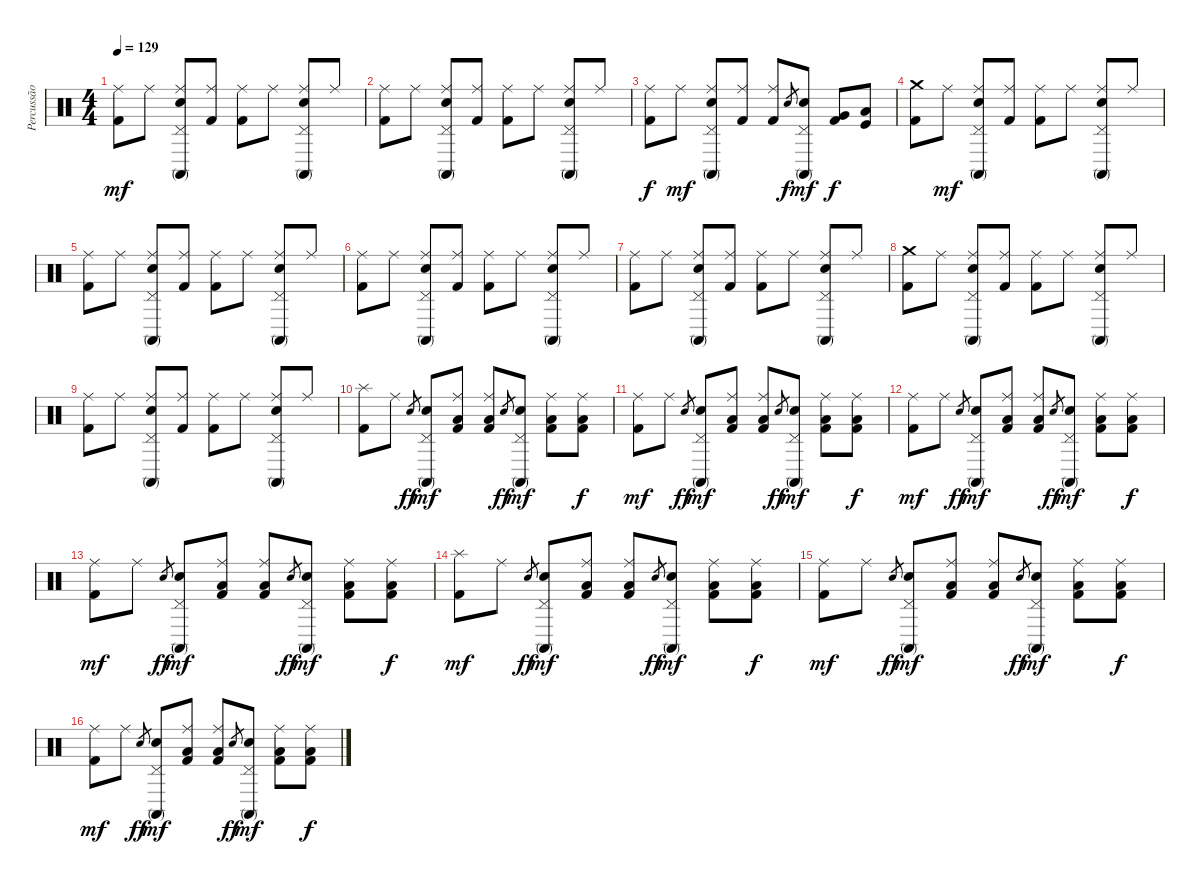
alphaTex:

\track ("Percussão" "Percussão") {instrument percussion}
\staff {score}
\articulation defaults
\ts (4 4)
\tempo 129
\clef neutral
\ks c
("Ride (middle)" "Kick (hit) 2").8{dy mf} "Ride (middle)".8 ("Ride (middle)" "Snare (hit) 2" "Conga high (mute)" "Pedal Hi-Hat (hit)").8 ("Ride (middle)" "Kick (hit) 2").8 ("Ride (middle)" "Kick (hit) 2").8 "Ride (middle)".8 ("Ride (middle)" "Snare (hit) 2" "Conga high (mute)" "Pedal Hi-Hat (hit)").8 "Ride (middle)".8 |
("Ride (middle)" "Kick (hit) 2").8 "Ride (middle)".8 ("Ride (middle)" "Snare (hit) 2" "Conga high (mute)" "Pedal Hi-Hat (hit)").8 ("Ride (middle)" "Kick (hit) 2").8 ("Ride (middle)" "Kick (hit) 2").8 "Ride (middle)".8 ("Ride (middle)" "Snare (hit) 2" "Conga high (mute)" "Pedal Hi-Hat (hit)").8 "Ride (middle)".8 |
("Ride (middle)" "Kick (hit) 2").8{dy f} "Ride (middle)".8{dy mf} ("Ride (middle)" "Snare (hit) 2" "Conga high (mute)" "Pedal Hi-Hat (hit)").8 ("Ride (middle)" "Kick (hit) 2").8 ("Ride (middle)" "Kick (hit) 2").8 "Snare (hit) 2".8{gr dy f} ("Snare (hit) 2" "Conga high (mute)" "Pedal Hi-Hat (hit)").8{dy mf} ("Very Low Tom (hit)" "Kick (hit) 2").8{dy f} ("Low Floor Tom (hit)" "Kick (hit)").8 |
("Crash medium (hit)" "Kick (hit) 2").8 "Ride (middle)".8{dy mf} ("Ride (middle)" "Snare (hit) 2" "Conga high (mute)" "Pedal Hi-Hat (hit)").8 ("Ride (middle)" "Kick (hit) 2").8 ("Ride (middle)" "Kick (hit) 2").8 "Ride (middle)".8 ("Ride (middle)" "Snare (hit) 2" "Conga high (mute)" "Pedal Hi-Hat (hit)").8 "Ride (middle)".8 |
("Ride (middle)" "Kick (hit) 2").8 "Ride (middle)".8 ("Ride (middle)" "Snare (hit) 2" "Conga high (mute)" "Pedal Hi-Hat (hit)").8 ("Ride (middle)" "Kick (hit) 2").8 ("Ride (middle)" "Kick (hit) 2").8 "Ride (middle)".8 ("Ride (middle)" "Snare (hit) 2" "Conga high (mute)" "Pedal Hi-Hat (hit)").8 "Ride (middle)".8 |
("Ride (middle)" "Kick (hit) 2").8 "Ride (middle)".8 ("Ride (middle)" "Snare (hit) 2" "Conga high (mute)" "Pedal Hi-Hat (hit)").8 ("Ride (middle)" "Kick (hit) 2").8 ("Ride (middle)" "Kick (hit) 2").8 "Ride (middle)".8 ("Ride (middle)" "Snare (hit) 2" "Conga high (mute)" "Pedal Hi-Hat (hit)").8 "Ride (middle)".8 |
("Ride (middle)" "Kick (hit) 2").8 "Ride (middle)".8 ("Ride (middle)" "Snare (hit) 2" "Conga high (mute)" "Pedal Hi-Hat (hit)").8 ("Ride (middle)" "Kick (hit) 2").8 ("Ride (middle)" "Kick (hit) 2").8 "Ride (middle)".8 ("Ride (middle)" "Snare (hit) 2" "Conga high (mute)" "Pedal Hi-Hat (hit)").8 "Ride (middle)".8 |
("Crash medium (hit)" "Kick (hit) 2").8 "Ride (middle)".8 ("Ride (middle)" "Snare (hit) 2" "Conga high (mute)" "Pedal Hi-Hat (hit)").8 ("Ride (middle)" "Kick (hit) 2").8 ("Ride (middle)" "Kick (hit) 2").8 "Ride (middle)".8 ("Ride (middle)" "Snare (hit) 2" "Conga high (mute)" "Pedal Hi-Hat (hit)").8 "Ride (middle)".8 |
("Ride (middle)" "Kick (hit) 2").8 "Ride (middle)".8 ("Ride (middle)" "Snare (hit) 2" "Conga high (mute)" "Pedal Hi-Hat (hit)").8 ("Ride (middle)" "Kick (hit) 2").8 ("Ride (middle)" "Kick (hit) 2").8 "Ride (middle)".8 ("Ride (middle)" "Snare (hit) 2" "Conga high (mute)" "Pedal Hi-Hat (hit)").8 "Ride (middle)".8 |
("Splash (hit)" "Kick (hit) 2").8 "Ride (middle)".8 "Snare (hit) 2".8{gr dy ff} ("Snare (hit) 2" "Conga high (mute)" "Pedal Hi-Hat (hit)").8{dy mf} ("Ride (middle)" "Low Floor Tom (hit)" "Kick (hit) 2").8 ("Ride (middle)" "Low Floor Tom (hit)" "Kick (hit) 2").8 "Snare (hit) 2".8{gr dy ff} ("Snare (hit) 2" "Conga high (mute)" "Pedal Hi-Hat (hit)").8{dy mf} ("Ride (middle)" "Low Floor Tom (hit)" "Kick (hit) 2").8 ("Ride (middle)" "Low Floor Tom (hit)" "Kick (hit) 2").8{dy f} |
("Ride (middle)" "Kick (hit) 2").8{dy mf} "Ride (middle)".8 "Snare (hit) 2".8{gr dy ff} ("Snare (hit) 2" "Conga high (mute)" "Pedal Hi-Hat (hit)").8{dy mf} ("Ride (middle)" "Low Floor Tom (hit)" "Kick (hit) 2").8 ("Ride (middle)" "Low Floor Tom (hit)" "Kick (hit) 2").8 "Snare (hit) 2".8{gr dy ff} ("Snare (hit) 2" "Conga high (mute)" "Pedal Hi-Hat (hit)").8{dy mf} ("Ride (middle)" "Low Floor Tom (hit)" "Kick (hit) 2").8 ("Ride (middle)" "Low Floor Tom (hit)" "Kick (hit) 2").8{dy f} |
("Ride (middle)" "Kick (hit) 2").8{dy mf} "Ride (middle)".8 "Snare (hit) 2".8{gr dy ff} ("Snare (hit) 2" "Conga high (mute)" "Pedal Hi-Hat (hit)").8{dy mf} ("Ride (middle)" "Low Floor Tom (hit)" "Kick (hit) 2").8 ("Ride (middle)" "Low Floor Tom (hit)" "Kick (hit) 2").8 "Snare (hit) 2".8{gr dy ff} ("Snare (hit) 2" "Conga high (mute)" "Pedal Hi-Hat (hit)").8{dy mf} ("Ride (middle)" "Low Floor Tom (hit)" "Kick (hit) 2").8 ("Ride (middle)" "Low Floor Tom (hit)" "Kick (hit) 2").8{dy f} |
("Ride (middle)" "Kick (hit) 2").8{dy mf} "Ride (middle)".8 "Snare (hit) 2".8{gr dy ff} ("Snare (hit) 2" "Conga high (mute)" "Pedal Hi-Hat (hit)").8{dy mf} ("Ride (middle)" "Low Floor Tom (hit)" "Kick (hit) 2").8 ("Ride (middle)" "Low Floor Tom (hit)" "Kick (hit) 2").8 "Snare (hit) 2".8{gr dy ff} ("Snare (hit) 2" "Conga high (mute)" "Pedal Hi-Hat (hit)").8{dy mf} ("Ride (middle)" "Low Floor Tom (hit)" "Kick (hit) 2").8 ("Ride (middle)" "Low Floor Tom (hit)" "Kick (hit) 2").8{dy f} |
("Splash (hit)" "Kick (hit) 2").8{dy mf} "Ride (middle)".8 "Snare (hit) 2".8{gr dy ff} ("Snare (hit) 2" "Conga high (mute)" "Pedal Hi-Hat (hit)").8{dy mf} ("Ride (middle)" "Low Floor Tom (hit)" "Kick (hit) 2").8 ("Ride (middle)" "Low Floor Tom (hit)" "Kick (hit) 2").8 "Snare (hit) 2".8{gr dy ff} ("Snare (hit) 2" "Conga high (mute)" "Pedal Hi-Hat (hit)").8{dy mf} ("Ride (middle)" "Low Floor Tom (hit)" "Kick (hit) 2").8 ("Ride (middle)" "Low Floor Tom (hit)" "Kick (hit) 2").8{dy f} |
("Ride (middle)" "Kick (hit) 2").8{dy mf} "Ride (middle)".8 "Snare (hit) 2".8{gr dy ff} ("Snare (hit) 2" "Conga high (mute)" "Pedal Hi-Hat (hit)").8{dy mf} ("Ride (middle)" "Low Floor Tom (hit)" "Kick (hit) 2").8 ("Ride (middle)" "Low Floor Tom (hit)" "Kick (hit) 2").8 "Snare (hit) 2".8{gr dy ff} ("Snare (hit) 2" "Conga high (mute)" "Pedal Hi-Hat (hit)").8{dy mf} ("Ride (middle)" "Low Floor Tom (hit)" "Kick (hit) 2").8 ("Ride (middle)" "Low Floor Tom (hit)" "Kick (hit) 2").8{dy f} |
("Ride (middle)" "Kick (hit) 2").8{dy mf} "Ride (middle)".8 "Snare (hit) 2".8{gr dy ff} ("Snare (hit) 2" "Conga high (mute)" "Pedal Hi-Hat (hit)").8{dy mf} ("Ride (middle)" "Low Floor Tom (hit)" "Kick (hit) 2").8 ("Ride (middle)" "Low Floor Tom (hit)" "Kick (hit) 2").8 "Snare (hit) 2".8{gr dy ff} ("Snare (hit) 2" "Conga high (mute)" "Pedal Hi-Hat (hit)").8{dy mf} ("Ride (middle)" "Low Floor Tom (hit)" "Kick (hit) 2").8 ("Ride (middle)" "Low Floor Tom (hit)" "Kick (hit) 2").8{dy f}
